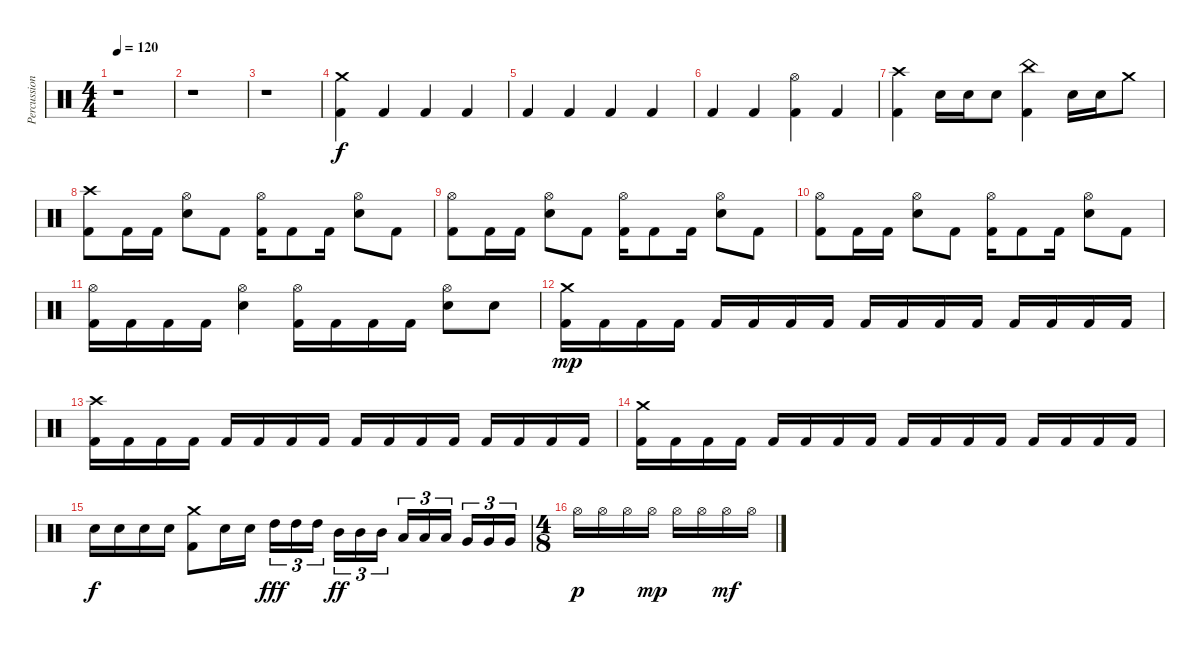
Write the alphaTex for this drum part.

\track ("Percussioni" "Percussion") {instrument percussion}
\staff {score}
\articulation defaults
\ts (4 4)
\tempo 120
\clef neutral
\ks c
r.1{dy f} |
r.1 |
r.1 |
("Crash medium (hit)" "Kick (hit) 2").4 "Kick (hit) 2".4 "Kick (hit) 2".4 "Kick (hit) 2".4 |
"Kick (hit) 2".4 "Kick (hit) 2".4 "Kick (hit) 2".4 "Kick (hit) 2".4 |
"Kick (hit) 2".4 "Kick (hit) 2".4 ("Hi-Hat (open)" "Kick (hit) 2").4 "Kick (hit) 2".4 |
("Crash high (hit)" "Kick (hit) 2").4 "Electric Snare (hit)".16 "Electric Snare (hit)".16 "Electric Snare (hit)".8 ("China (hit)" "Kick (hit) 2").4 "Electric Snare (hit)".16 "Electric Snare (hit)".16 "Crash medium (hit)".8 |
("Crash high (hit)" "Kick (hit) 2").8 "Kick (hit) 2".16 "Kick (hit) 2".16 ("Hi-Hat (open)" "Electric Snare (hit)").8 "Kick (hit) 2".8 ("Hi-Hat (open)" "Kick (hit) 2").16 "Kick (hit) 2".8 "Kick (hit) 2".16 ("Hi-Hat (open)" "Electric Snare (hit)").8 "Kick (hit) 2".8 |
("Hi-Hat (open)" "Kick (hit) 2").8 "Kick (hit) 2".16 "Kick (hit) 2".16 ("Hi-Hat (open)" "Electric Snare (hit)").8 "Kick (hit) 2".8 ("Hi-Hat (open)" "Kick (hit) 2").16 "Kick (hit) 2".8 "Kick (hit) 2".16 ("Hi-Hat (open)" "Electric Snare (hit)").8 "Kick (hit) 2".8 |
("Hi-Hat (open)" "Kick (hit) 2").8 "Kick (hit) 2".16 "Kick (hit) 2".16 ("Hi-Hat (open)" "Electric Snare (hit)").8 "Kick (hit) 2".8 ("Hi-Hat (open)" "Kick (hit) 2").16 "Kick (hit) 2".8 "Kick (hit) 2".16 ("Hi-Hat (open)" "Electric Snare (hit)").8 "Kick (hit) 2".8 |
("Hi-Hat (open)" "Kick (hit) 2").16 "Kick (hit) 2".16 "Kick (hit) 2".16 "Kick (hit) 2".16 ("Hi-Hat (open)" "Electric Snare (hit)").4 ("Hi-Hat (open)" "Kick (hit) 2").16 "Kick (hit) 2".16 "Kick (hit) 2".16 "Kick (hit) 2".16 ("Hi-Hat (open)" "Electric Snare (hit)").8 "Electric Snare (hit)".8 |
("Crash medium (hit)" "Kick (hit) 2").16{dy mp} "Kick (hit) 2".16 "Kick (hit) 2".16 "Kick (hit) 2".16 "Kick (hit) 2".16 "Kick (hit) 2".16 "Kick (hit) 2".16 "Kick (hit) 2".16 "Kick (hit) 2".16 "Kick (hit) 2".16 "Kick (hit) 2".16 "Kick (hit) 2".16 "Kick (hit) 2".16 "Kick (hit) 2".16 "Kick (hit) 2".16 "Kick (hit) 2".16 |
("Crash high (hit)" "Kick (hit) 2").16 "Kick (hit) 2".16 "Kick (hit) 2".16 "Kick (hit) 2".16 "Kick (hit) 2".16 "Kick (hit) 2".16 "Kick (hit) 2".16 "Kick (hit) 2".16 "Kick (hit) 2".16 "Kick (hit) 2".16 "Kick (hit) 2".16 "Kick (hit) 2".16 "Kick (hit) 2".16 "Kick (hit) 2".16 "Kick (hit) 2".16 "Kick (hit) 2".16 |
("Crash medium (hit)" "Kick (hit) 2").16 "Kick (hit) 2".16 "Kick (hit) 2".16 "Kick (hit) 2".16 "Kick (hit) 2".16 "Kick (hit) 2".16 "Kick (hit) 2".16 "Kick (hit) 2".16 "Kick (hit) 2".16 "Kick (hit) 2".16 "Kick (hit) 2".16 "Kick (hit) 2".16 "Kick (hit) 2".16 "Kick (hit) 2".16 "Kick (hit) 2".16 "Kick (hit) 2".16 |
"Electric Snare (hit)".16{dy f} "Electric Snare (hit)".16 "Electric Snare (hit)".16 "Electric Snare (hit)".16 ("Crash medium (hit)" "Kick (hit) 2").8 "Electric Snare (hit)".16 "Electric Snare (hit)".16 "High Tom (hit)".16{tu (3 2) dy fff} "High Tom (hit)".16{tu (3 2)} "High Tom (hit)".16{tu (3 2)} "Mid Tom (hit)".16{tu (3 2) dy ff} "Mid Tom (hit)".16{tu (3 2)} "Mid Tom (hit)".16{tu (3 2)} "Low Tom (hit)".16{tu (3 2)} "Low Tom (hit)".16{tu (3 2)} "Low Tom (hit)".16{tu (3 2)} "Very Low Tom (hit)".16{tu (3 2)} "Very Low Tom (hit)".16{tu (3 2)} "Very Low Tom (hit)".16{tu (3 2)} |
\ts (4 8)
"Hi-Hat (open)".16{dy p} "Hi-Hat (open)".16 "Hi-Hat (open)".16 "Hi-Hat (open)".16{dy mp} "Hi-Hat (open)".16 "Hi-Hat (open)".16 "Hi-Hat (open)".16{dy mf} "Hi-Hat (open)".16
